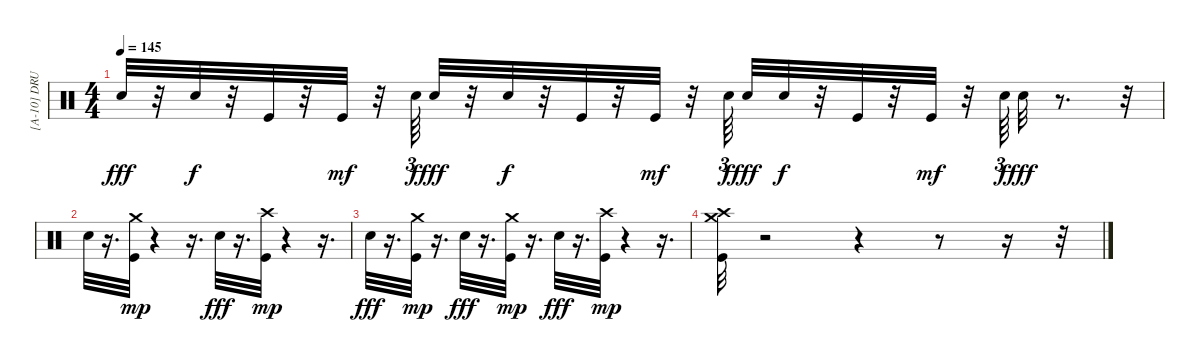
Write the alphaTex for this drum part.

\track ("[A-10] DRUMS" "[A-10] DRU") {instrument percussion}
\staff {score}
\articulation defaults
\ts (4 4)
\tempo 145
\clef neutral
\ks c "Snare (hit) 2".32{dy fff}
r.32 "Snare (hit) 2".32{dy f} r.32 "Kick (hit)".32 r.32 "Kick (hit)".32{dy mf} r.32 "Snare (hit) 2".64{tu (3 2) dy f} "Snare (hit) 2".32{dy fff} r.32 "Snare (hit) 2".32{dy f} r.32 "Kick (hit)".32 r.32 "Kick (hit)".32{dy mf} r.32 "Snare (hit) 2".64{tu (3 2) dy f beam splitsecondary} "Snare (hit) 2".32{dy fff} "Snare (hit) 2".32{dy f} r.32 "Kick (hit)".32 r.32 "Kick (hit)".32{dy mf} r.32 "Snare (hit) 2".64{tu (3 2) dy f} "Snare (hit) 2".32{dy fff} r.8{d} r.32 |
"Snare (hit) 2".32 r.16{d} ("Kick (hit)" "Crash medium (hit)").32{dy mp} r.4 r.16{d} "Snare (hit) 2".32{dy fff} r.16{d} ("Kick (hit)" "Crash high (hit)").32{dy mp} r.4 r.16{d} |
"Snare (hit) 2".32{dy fff} r.16{d} ("Kick (hit)" "Crash medium (hit)").32{dy mp} r.16{d} "Snare (hit) 2".32{dy fff} r.16{d} ("Kick (hit)" "Crash medium (hit)").32{dy mp} r.16{d} "Snare (hit) 2".32{dy fff} r.16{d} ("Kick (hit)" "Crash high (hit)").32{dy mp} r.4 r.16{d} |
("Kick (hit)" "Crash medium (hit)" "Crash high (hit)").32 r.2 r.4 r.8 r.16 r.32
